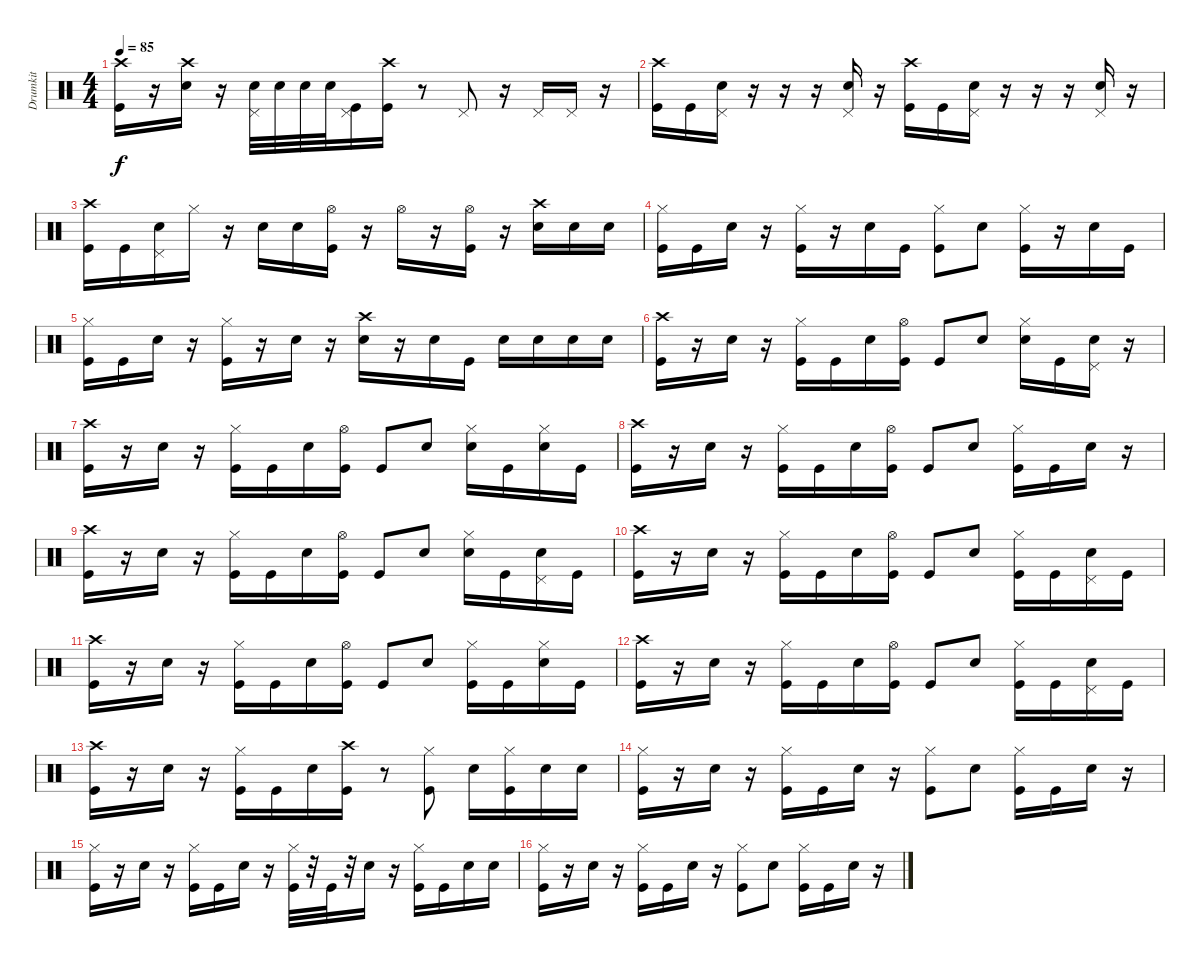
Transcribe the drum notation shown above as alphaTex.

\track ("Drumkit" "Drumkit") {instrument percussion}
\staff {score}
\articulation defaults
\ts (4 4)
\tempo 85
\clef neutral
\ks c
("Kick (hit)" "Crash high (hit)").16{dy f} r.16 ("Crash high (hit)" "Snare (hit) 2").16 r.16 ("Snare (hit) 2" "Pedal Hi-Hat (hit)").32 "Snare (hit) 2".32 "Snare (hit) 2".32 "Snare (hit) 2".32 ("Kick (hit)" "Pedal Hi-Hat (hit)").16 ("Kick (hit)" "Crash high (hit)").16 r.8 "Pedal Hi-Hat (hit)".8 r.16 "Pedal Hi-Hat (hit)".16 "Pedal Hi-Hat (hit)".16 r.16 |
("Kick (hit)" "Crash high (hit)").16 "Kick (hit)".16 ("Snare (hit) 2" "Pedal Hi-Hat (hit)").16 r.16 r.16 r.16 ("Snare (hit) 2" "Pedal Hi-Hat (hit)").16 r.16 ("Kick (hit)" "Crash high (hit)").16 "Kick (hit)".16 ("Snare (hit) 2" "Pedal Hi-Hat (hit)").16 r.16 r.16 r.16 ("Snare (hit) 2" "Pedal Hi-Hat (hit)").16 r.16 |
("Kick (hit)" "Crash high (hit)").16 "Kick (hit)".16 ("Snare (hit) 2" "Pedal Hi-Hat (hit)").16 "Hi-Hat (closed)".16 r.16 "Snare (hit) 2".16 "Snare (hit) 2".16 ("Kick (hit)" "Hi-Hat (open)").16 r.16 "Hi-Hat (open)".16 r.16 ("Kick (hit)" "Hi-Hat (open)").16 r.16 ("Crash high (hit)" "Snare (hit) 2").16 "Snare (hit) 2".16 "Snare (hit) 2".16 |
("Kick (hit)" "Hi-Hat (closed)").16 "Kick (hit)".16 "Snare (hit) 2".16 r.16 ("Kick (hit)" "Hi-Hat (closed)").16 r.16 "Snare (hit) 2".16 "Kick (hit)".16 ("Kick (hit)" "Hi-Hat (closed)").8 "Snare (hit) 2".8 ("Kick (hit)" "Hi-Hat (closed)").16 r.16 "Snare (hit) 2".16 "Kick (hit)".16 |
("Kick (hit)" "Hi-Hat (closed)").16 "Kick (hit)".16 "Snare (hit) 2".16 r.16 ("Kick (hit)" "Hi-Hat (closed)").16 r.16 "Snare (hit) 2".16 r.16 ("Snare (hit) 2" "Crash high (hit)").16 r.16 "Snare (hit) 2".16 "Kick (hit)".16 "Snare (hit) 2".16 "Snare (hit) 2".16 "Snare (hit) 2".16 "Snare (hit) 2".16 |
("Kick (hit)" "Crash high (hit)").16 r.16 "Snare (hit) 2".16 r.16 ("Kick (hit)" "Hi-Hat (closed)").16 "Kick (hit)".16 "Snare (hit) 2".16 ("Kick (hit)" "Hi-Hat (open)").16 "Kick (hit)".8 "Snare (hit) 2".8 ("Snare (hit) 2" "Hi-Hat (closed)").16 "Kick (hit)".16 ("Snare (hit) 2" "Pedal Hi-Hat (hit)").16 r.16 |
("Kick (hit)" "Crash high (hit)").16 r.16 "Snare (hit) 2".16 r.16 ("Kick (hit)" "Hi-Hat (closed)").16 "Kick (hit)".16 "Snare (hit) 2".16 ("Kick (hit)" "Hi-Hat (open)").16 "Kick (hit)".8 "Snare (hit) 2".8 ("Snare (hit) 2" "Hi-Hat (closed)").16 "Kick (hit)".16 ("Snare (hit) 2" "Hi-Hat (closed)").16 "Kick (hit)".16 |
("Kick (hit)" "Crash high (hit)").16 r.16 "Snare (hit) 2".16 r.16 ("Kick (hit)" "Hi-Hat (closed)").16 "Kick (hit)".16 "Snare (hit) 2".16 ("Kick (hit)" "Hi-Hat (open)").16 "Kick (hit)".8 "Snare (hit) 2".8 ("Kick (hit)" "Hi-Hat (closed)").16 "Kick (hit)".16 "Snare (hit) 2".16 r.16 |
("Kick (hit)" "Crash high (hit)").16 r.16 "Snare (hit) 2".16 r.16 ("Kick (hit)" "Hi-Hat (closed)").16 "Kick (hit)".16 "Snare (hit) 2".16 ("Kick (hit)" "Hi-Hat (open)").16 "Kick (hit)".8 "Snare (hit) 2".8 ("Snare (hit) 2" "Hi-Hat (closed)").16 "Kick (hit)".16 ("Snare (hit) 2" "Pedal Hi-Hat (hit)").16 "Kick (hit)".16 |
("Kick (hit)" "Crash high (hit)").16 r.16 "Snare (hit) 2".16 r.16 ("Kick (hit)" "Hi-Hat (closed)").16 "Kick (hit)".16 "Snare (hit) 2".16 ("Kick (hit)" "Hi-Hat (open)").16 "Kick (hit)".8 "Snare (hit) 2".8 ("Kick (hit)" "Hi-Hat (closed)").16 "Kick (hit)".16 ("Snare (hit) 2" "Pedal Hi-Hat (hit)").16 "Kick (hit)".16 |
("Kick (hit)" "Crash high (hit)").16 r.16 "Snare (hit) 2".16 r.16 ("Kick (hit)" "Hi-Hat (closed)").16 "Kick (hit)".16 "Snare (hit) 2".16 ("Kick (hit)" "Hi-Hat (open)").16 "Kick (hit)".8 "Snare (hit) 2".8 ("Kick (hit)" "Hi-Hat (closed)").16 "Kick (hit)".16 ("Snare (hit) 2" "Hi-Hat (closed)").16 "Kick (hit)".16 |
("Kick (hit)" "Crash high (hit)").16 r.16 "Snare (hit) 2".16 r.16 ("Kick (hit)" "Hi-Hat (closed)").16 "Kick (hit)".16 "Snare (hit) 2".16 ("Kick (hit)" "Hi-Hat (open)").16 "Kick (hit)".8 "Snare (hit) 2".8 ("Kick (hit)" "Hi-Hat (closed)").16 "Kick (hit)".16 ("Snare (hit) 2" "Pedal Hi-Hat (hit)").16 "Kick (hit)".16 |
("Kick (hit)" "Crash high (hit)").16 r.16 "Snare (hit) 2".16 r.16 ("Kick (hit)" "Hi-Hat (closed)").16 "Kick (hit)".16 "Snare (hit) 2".16 ("Kick (hit)" "Crash high (hit)").16 r.8 ("Kick (hit)" "Hi-Hat (closed)").8 "Snare (hit) 2".16 ("Kick (hit)" "Hi-Hat (closed)").16 "Snare (hit) 2".16 "Snare (hit) 2".16 |
("Kick (hit)" "Hi-Hat (closed)").16 r.16 "Snare (hit) 2".16 r.16 ("Kick (hit)" "Hi-Hat (closed)").16 "Kick (hit)".16 "Snare (hit) 2".16 r.16 ("Kick (hit)" "Hi-Hat (closed)").8 "Snare (hit) 2".8 ("Kick (hit)" "Hi-Hat (closed)").16 "Kick (hit)".16 "Snare (hit) 2".16 r.16 |
("Kick (hit)" "Hi-Hat (closed)").16 r.16 "Snare (hit) 2".16 r.16 ("Kick (hit)" "Hi-Hat (closed)").16 "Kick (hit)".16 "Snare (hit) 2".16 r.16 ("Kick (hit)" "Hi-Hat (closed)").32 r.32 "Kick (hit)".32 r.32 "Snare (hit) 2".16 r.16 ("Kick (hit)" "Hi-Hat (closed)").16 "Kick (hit)".16 "Snare (hit) 2".16 "Snare (hit) 2".16 |
("Kick (hit)" "Hi-Hat (closed)").16 r.16 "Snare (hit) 2".16 r.16 ("Kick (hit)" "Hi-Hat (closed)").16 "Kick (hit)".16 "Snare (hit) 2".16 r.16 ("Kick (hit)" "Hi-Hat (closed)").8 "Snare (hit) 2".8 ("Kick (hit)" "Hi-Hat (closed)").16 "Kick (hit)".16 "Snare (hit) 2".16 r.16
